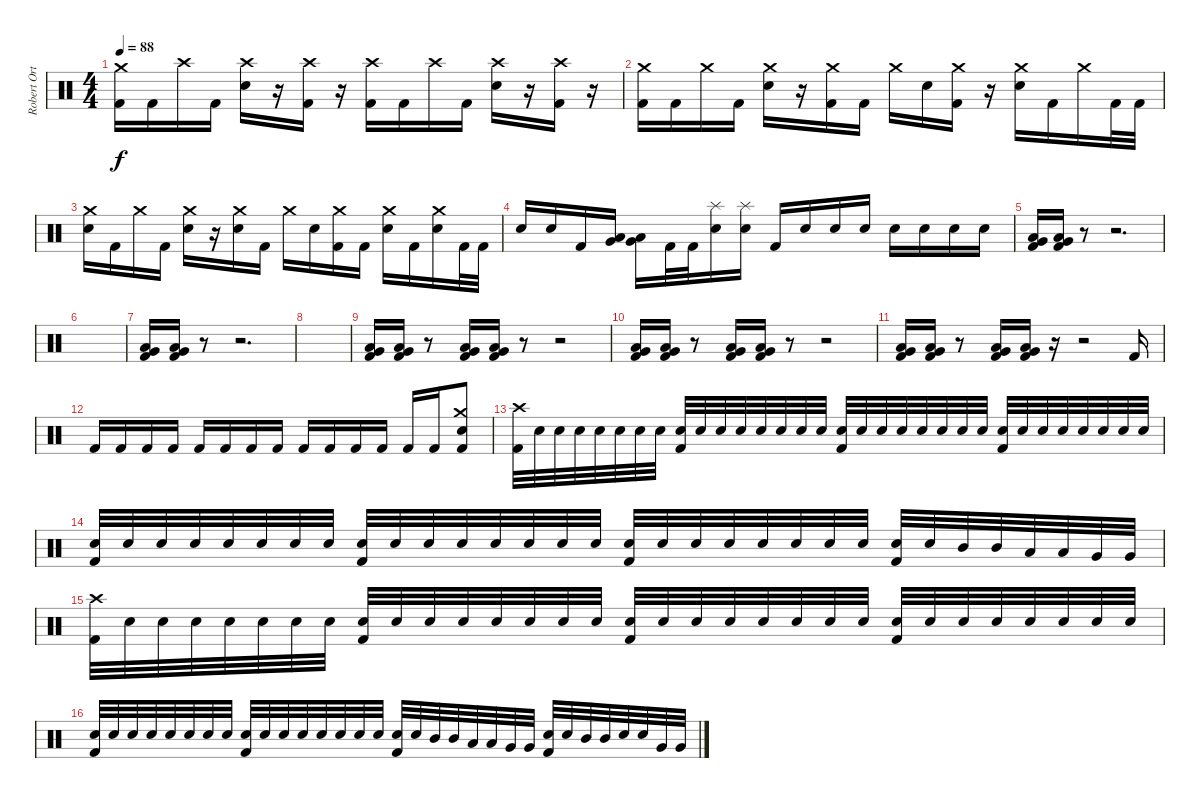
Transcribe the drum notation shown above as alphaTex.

\track ("Robert Ortiz" "Robert Ort") {instrument percussion}
\staff {score}
\articulation defaults
\ts (4 4)
\tempo 88
\clef neutral
\ks c
("Kick (hit) 2" "Crash medium (hit)").16{dy f} "Kick (hit) 2".16 "Crash high (hit)".16 "Kick (hit) 2".16 ("Electric Snare (hit)" "Crash high (hit)").16 r.16 ("Kick (hit) 2" "Crash high (hit)").16 r.16 ("Kick (hit) 2" "Crash high (hit)").16 "Kick (hit) 2".16 "Crash high (hit)".16 "Kick (hit) 2".16 ("Electric Snare (hit)" "Crash high (hit)").16 r.16 ("Kick (hit) 2" "Crash high (hit)").16 r.16 |
("Kick (hit) 2" "Crash medium (hit)").16 "Kick (hit) 2".16 "Crash medium (hit)".16 "Kick (hit) 2".16 ("Electric Snare (hit)" "Crash medium (hit)").16 r.16 ("Kick (hit) 2" "Crash medium (hit)").16 "Kick (hit) 2".16 "Crash medium (hit)".16 "Electric Snare (hit)".16 ("Kick (hit) 2" "Crash medium (hit)").16 r.16 ("Electric Snare (hit)" "Crash medium (hit)").16 "Kick (hit) 2".16 "Crash medium (hit)".16 "Kick (hit) 2".32 "Kick (hit) 2".32 |
("Electric Snare (hit)" "Crash medium (hit)").16 "Kick (hit) 2".16 "Crash medium (hit)".16 "Kick (hit) 2".16 ("Electric Snare (hit)" "Crash medium (hit)").16 r.16 ("Electric Snare (hit)" "Crash medium (hit)").16 "Kick (hit) 2".16 "Crash medium (hit)".16 "Electric Snare (hit)".16 ("Kick (hit) 2" "Crash medium (hit)").16 "Kick (hit) 2".16 ("Electric Snare (hit)" "Crash medium (hit)").16 "Kick (hit) 2".16 ("Electric Snare (hit)" "Crash medium (hit)").16 "Kick (hit) 2".32 "Kick (hit) 2".32 |
"Electric Snare (hit)".16 "Electric Snare (hit)".16 "Kick (hit) 2".16 ("Low Tom (hit)" "Very Low Tom (hit)").16 ("Low Tom (hit)" "Very Low Tom (hit)").16 "Kick (hit) 2".32 "Kick (hit) 2".32 ("Electric Snare (hit)" "Splash (hit)").16 ("Electric Snare (hit)" "Splash (hit)").16 "Kick (hit) 2".16 "Electric Snare (hit)".16 "Electric Snare (hit)".16 "Electric Snare (hit)".16 "Electric Snare (hit)".16 "Electric Snare (hit)".16 "Electric Snare (hit)".16 "Electric Snare (hit)".16 |
("Kick (hit) 2" "Very Low Tom (hit)" "Low Tom (hit)").16 ("Kick (hit) 2" "Very Low Tom (hit)" "Low Tom (hit)").16 r.8 r.2{d} |
|
("Kick (hit) 2" "Very Low Tom (hit)" "Low Tom (hit)").16 ("Kick (hit) 2" "Very Low Tom (hit)" "Low Tom (hit)").16 r.8 r.2{d} |
|
("Kick (hit) 2" "Very Low Tom (hit)" "Low Tom (hit)").16 ("Kick (hit) 2" "Very Low Tom (hit)" "Low Tom (hit)").16 r.8 ("Kick (hit) 2" "Very Low Tom (hit)" "Low Tom (hit)").16 ("Kick (hit) 2" "Very Low Tom (hit)" "Low Tom (hit)").16 r.8 r.2 |
("Kick (hit) 2" "Very Low Tom (hit)" "Low Tom (hit)").16 ("Kick (hit) 2" "Very Low Tom (hit)" "Low Tom (hit)").16 r.8 ("Kick (hit) 2" "Very Low Tom (hit)" "Low Tom (hit)").16 ("Kick (hit) 2" "Very Low Tom (hit)" "Low Tom (hit)").16 r.8 r.2 |
("Kick (hit) 2" "Very Low Tom (hit)" "Low Tom (hit)").16 ("Kick (hit) 2" "Very Low Tom (hit)" "Low Tom (hit)").16 r.8 ("Kick (hit) 2" "Very Low Tom (hit)" "Low Tom (hit)").16 ("Kick (hit) 2" "Very Low Tom (hit)" "Low Tom (hit)").16 r.16 r.2 "Kick (hit) 2".16 |
"Kick (hit) 2".16 "Kick (hit) 2".16 "Kick (hit) 2".16 "Kick (hit) 2".16 "Kick (hit) 2".16 "Kick (hit) 2".16 "Kick (hit) 2".16 "Kick (hit) 2".16 "Kick (hit) 2".16 "Kick (hit) 2".16 "Kick (hit) 2".16 "Kick (hit) 2".16 "Kick (hit) 2".16 "Kick (hit) 2".16 ("Kick (hit) 2" "Electric Snare (hit)" "Crash medium (hit)").8 |
("Kick (hit) 2" "Crash high (hit)").32 "Electric Snare (hit)".32 "Electric Snare (hit)".32 "Electric Snare (hit)".32 "Electric Snare (hit)".32 "Electric Snare (hit)".32 "Electric Snare (hit)".32 "Electric Snare (hit)".32 ("Kick (hit) 2" "Electric Snare (hit)").32 "Electric Snare (hit)".32 "Electric Snare (hit)".32 "Electric Snare (hit)".32 "Electric Snare (hit)".32 "Electric Snare (hit)".32 "Electric Snare (hit)".32 "Electric Snare (hit)".32 ("Kick (hit) 2" "Electric Snare (hit)").32 "Electric Snare (hit)".32 "Electric Snare (hit)".32 "Electric Snare (hit)".32 "Electric Snare (hit)".32 "Electric Snare (hit)".32 "Electric Snare (hit)".32 "Electric Snare (hit)".32 ("Kick (hit) 2" "Electric Snare (hit)").32 "Electric Snare (hit)".32 "Electric Snare (hit)".32 "Electric Snare (hit)".32 "Electric Snare (hit)".32 "Electric Snare (hit)".32 "Electric Snare (hit)".32 "Electric Snare (hit)".32 |
("Kick (hit) 2" "Electric Snare (hit)").32 "Electric Snare (hit)".32 "Electric Snare (hit)".32 "Electric Snare (hit)".32 "Electric Snare (hit)".32 "Electric Snare (hit)".32 "Electric Snare (hit)".32 "Electric Snare (hit)".32 ("Kick (hit) 2" "Electric Snare (hit)").32 "Electric Snare (hit)".32 "Electric Snare (hit)".32 "Electric Snare (hit)".32 "Electric Snare (hit)".32 "Electric Snare (hit)".32 "Electric Snare (hit)".32 "Electric Snare (hit)".32 ("Kick (hit) 2" "Electric Snare (hit)").32 "Electric Snare (hit)".32 "Electric Snare (hit)".32 "Electric Snare (hit)".32 "Electric Snare (hit)".32 "Electric Snare (hit)".32 "Electric Snare (hit)".32 "Electric Snare (hit)".32 ("Kick (hit) 2" "Electric Snare (hit)").32 "Electric Snare (hit)".32 "Mid Tom (hit)".32 "Mid Tom (hit)".32 "Low Tom (hit)".32 "Low Tom (hit)".32 "Very Low Tom (hit)".32 "Very Low Tom (hit)".32 |
("Kick (hit) 2" "Crash high (hit)").32 "Electric Snare (hit)".32 "Electric Snare (hit)".32 "Electric Snare (hit)".32 "Electric Snare (hit)".32 "Electric Snare (hit)".32 "Electric Snare (hit)".32 "Electric Snare (hit)".32 ("Kick (hit) 2" "Electric Snare (hit)").32 "Electric Snare (hit)".32 "Electric Snare (hit)".32 "Electric Snare (hit)".32 "Electric Snare (hit)".32 "Electric Snare (hit)".32 "Electric Snare (hit)".32 "Electric Snare (hit)".32 ("Kick (hit) 2" "Electric Snare (hit)").32 "Electric Snare (hit)".32 "Electric Snare (hit)".32 "Electric Snare (hit)".32 "Electric Snare (hit)".32 "Electric Snare (hit)".32 "Electric Snare (hit)".32 "Electric Snare (hit)".32 ("Kick (hit) 2" "Electric Snare (hit)").32 "Electric Snare (hit)".32 "Electric Snare (hit)".32 "Electric Snare (hit)".32 "Electric Snare (hit)".32 "Electric Snare (hit)".32 "Electric Snare (hit)".32 "Electric Snare (hit)".32 |
("Kick (hit) 2" "Electric Snare (hit)").32 "Electric Snare (hit)".32 "Electric Snare (hit)".32 "Electric Snare (hit)".32 "Electric Snare (hit)".32 "Electric Snare (hit)".32 "Electric Snare (hit)".32 "Electric Snare (hit)".32 ("Kick (hit) 2" "Electric Snare (hit)").32 "Electric Snare (hit)".32 "Electric Snare (hit)".32 "Electric Snare (hit)".32 "Electric Snare (hit)".32 "Electric Snare (hit)".32 "Electric Snare (hit)".32 "Electric Snare (hit)".32 ("Kick (hit) 2" "Electric Snare (hit)").32 "Electric Snare (hit)".32 "Mid Tom (hit)".32 "Mid Tom (hit)".32 "Low Tom (hit)".32 "Low Tom (hit)".32 "Very Low Tom (hit)".32 "Very Low Tom (hit)".32 ("Kick (hit) 2" "Electric Snare (hit)").32 "Electric Snare (hit)".32 "Mid Tom (hit)".32 "Mid Tom (hit)".32 "Electric Snare (hit)".32 "Electric Snare (hit)".32 "Very Low Tom (hit)".32 "Very Low Tom (hit)".32
